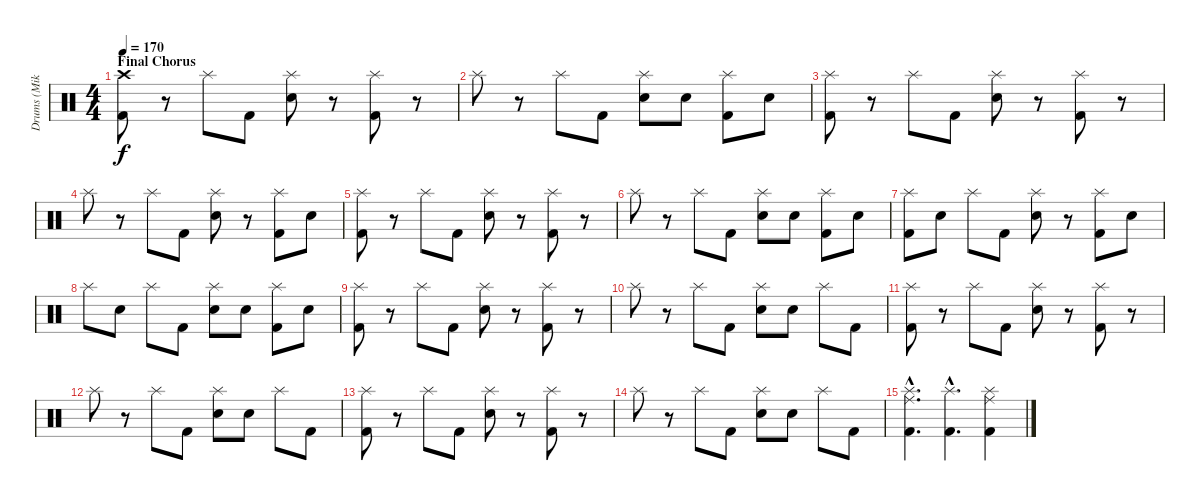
\track ("Drums (Mike C)" "Drums (Mik") {instrument percussion}
\staff {score}
\articulation defaults
\ts (4 4)
\section ("" "Final Chorus")
\tempo 170
\clef neutral
\ks c
("Crash high (hit)" "Kick (hit) 2").8{dy f} r.8 "Splash (hit)".8 "Kick (hit) 2".8 ("Splash (hit)" "Snare (hit) 2").8 r.8 ("Splash (hit)" "Kick (hit) 2").8 r.8 |
"Splash (hit)".8 r.8 "Splash (hit)".8 "Kick (hit) 2".8 ("Splash (hit)" "Snare (hit) 2").8 "Snare (hit) 2".8 ("Splash (hit)" "Kick (hit) 2").8 "Snare (hit) 2".8 |
("Splash (hit)" "Kick (hit) 2").8 r.8 "Splash (hit)".8 "Kick (hit) 2".8 ("Splash (hit)" "Snare (hit) 2").8 r.8 ("Splash (hit)" "Kick (hit) 2").8 r.8 |
"Splash (hit)".8 r.8 "Splash (hit)".8 "Kick (hit) 2".8 ("Splash (hit)" "Snare (hit) 2").8 r.8 ("Splash (hit)" "Kick (hit) 2").8 "Snare (hit) 2".8 |
("Splash (hit)" "Kick (hit) 2").8 r.8 "Splash (hit)".8 "Kick (hit) 2".8 ("Splash (hit)" "Snare (hit) 2").8 r.8 ("Splash (hit)" "Kick (hit) 2").8 r.8 |
"Splash (hit)".8 r.8 "Splash (hit)".8 "Kick (hit) 2".8 ("Splash (hit)" "Snare (hit) 2").8 "Snare (hit) 2".8 ("Splash (hit)" "Kick (hit) 2").8 "Snare (hit) 2".8 |
("Splash (hit)" "Kick (hit) 2").8 "Snare (hit) 2".8 "Splash (hit)".8 "Kick (hit) 2".8 ("Splash (hit)" "Snare (hit) 2").8 r.8 ("Splash (hit)" "Kick (hit) 2").8 "Snare (hit) 2".8 |
"Splash (hit)".8 "Snare (hit) 2".8 "Splash (hit)".8 "Kick (hit) 2".8 ("Splash (hit)" "Snare (hit) 2").8 "Snare (hit) 2".8 ("Splash (hit)" "Kick (hit) 2").8 "Snare (hit) 2".8 |
("Splash (hit)" "Kick (hit) 2").8 r.8 "Splash (hit)".8 "Kick (hit) 2".8 ("Splash (hit)" "Snare (hit) 2").8 r.8 ("Splash (hit)" "Kick (hit) 2").8 r.8 |
"Splash (hit)".8 r.8 "Splash (hit)".8 "Kick (hit) 2".8 ("Splash (hit)" "Snare (hit) 2").8 "Snare (hit) 2".8 "Splash (hit)".8 "Kick (hit) 2".8 |
("Splash (hit)" "Kick (hit) 2").8 r.8 "Splash (hit)".8 "Kick (hit) 2".8 ("Splash (hit)" "Snare (hit) 2").8 r.8 ("Splash (hit)" "Kick (hit) 2").8 r.8 |
"Splash (hit)".8 r.8 "Splash (hit)".8 "Kick (hit) 2".8 ("Splash (hit)" "Snare (hit) 2").8 "Snare (hit) 2".8 "Splash (hit)".8 "Kick (hit) 2".8 |
("Splash (hit)" "Kick (hit) 2").8 r.8 "Splash (hit)".8 "Kick (hit) 2".8 ("Splash (hit)" "Snare (hit) 2").8 r.8 ("Splash (hit)" "Kick (hit) 2").8 r.8 |
"Splash (hit)".8 r.8 "Splash (hit)".8 "Kick (hit) 2".8 ("Splash (hit)" "Snare (hit) 2").8 "Snare (hit) 2".8 "Splash (hit)".8 "Kick (hit) 2".8 |
("Ride (middle)"{hac} "Splash (hit)"{hac} "Kick (hit) 2"{hac}).4{d} ("Splash (hit)"{hac} "Kick (hit) 2"{hac}).4{d} ("Ride (middle)" "Splash (hit)" "Kick (hit) 2").4
